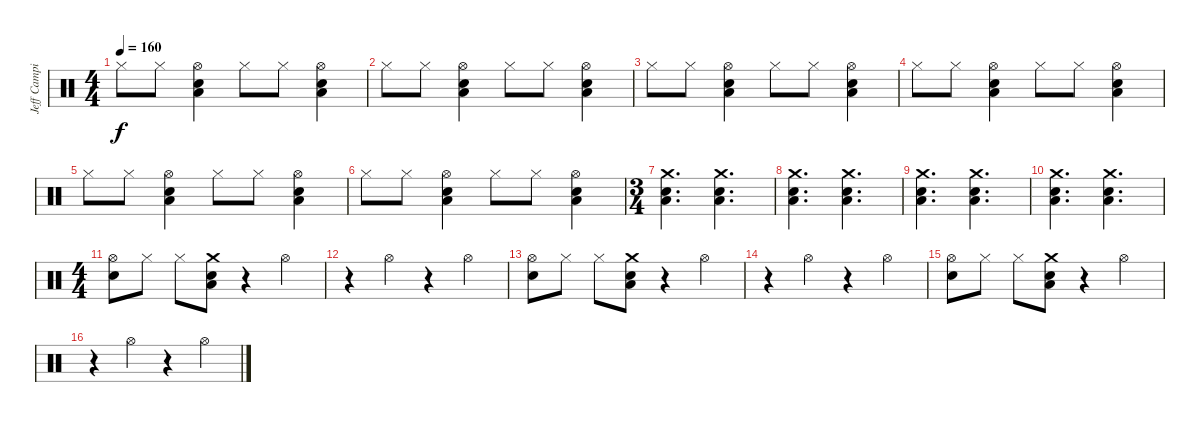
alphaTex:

\track ("Jeff Campitelli" "Jeff Campi") {instrument percussion}
\staff {score}
\articulation defaults
\ts (4 4)
\tempo 160
\clef neutral
\ks c "Hi-Hat (closed)".8{dy f} "Hi-Hat (closed)".8
("Low Floor Tom (hit)" "Snare (hit) 2" "Hi-Hat (open)").4 "Hi-Hat (closed)".8 "Hi-Hat (closed)".8 ("Low Floor Tom (hit)" "Snare (hit) 2" "Hi-Hat (open)").4 |
"Hi-Hat (closed)".8 "Hi-Hat (closed)".8 ("Low Floor Tom (hit)" "Snare (hit) 2" "Hi-Hat (open)").4 "Hi-Hat (closed)".8 "Hi-Hat (closed)".8 ("Low Floor Tom (hit)" "Snare (hit) 2" "Hi-Hat (open)").4 |
"Hi-Hat (closed)".8 "Hi-Hat (closed)".8 ("Low Floor Tom (hit)" "Snare (hit) 2" "Hi-Hat (open)").4 "Hi-Hat (closed)".8 "Hi-Hat (closed)".8 ("Low Floor Tom (hit)" "Snare (hit) 2" "Hi-Hat (open)").4 |
"Hi-Hat (closed)".8 "Hi-Hat (closed)".8 ("Low Floor Tom (hit)" "Snare (hit) 2" "Hi-Hat (open)").4 "Hi-Hat (closed)".8 "Hi-Hat (closed)".8 ("Low Floor Tom (hit)" "Snare (hit) 2" "Hi-Hat (open)").4 |
"Hi-Hat (closed)".8 "Hi-Hat (closed)".8 ("Low Floor Tom (hit)" "Snare (hit) 2" "Hi-Hat (open)").4 "Hi-Hat (closed)".8 "Hi-Hat (closed)".8 ("Low Floor Tom (hit)" "Snare (hit) 2" "Hi-Hat (open)").4 |
"Hi-Hat (closed)".8 "Hi-Hat (closed)".8 ("Low Floor Tom (hit)" "Snare (hit) 2" "Hi-Hat (open)").4 "Hi-Hat (closed)".8 "Hi-Hat (closed)".8 ("Low Floor Tom (hit)" "Snare (hit) 2" "Hi-Hat (open)").4 |
\ts (3 4)
("Crash medium (hit)" "Snare (hit) 2" "Low Floor Tom (hit)").4{d} ("Crash medium (hit)" "Snare (hit) 2" "Low Floor Tom (hit)").4{d} |
("Crash medium (hit)" "Snare (hit) 2" "Low Floor Tom (hit)").4{d} ("Crash medium (hit)" "Snare (hit) 2" "Low Floor Tom (hit)").4{d} |
("Crash medium (hit)" "Snare (hit) 2" "Low Floor Tom (hit)").4{d} ("Crash medium (hit)" "Snare (hit) 2" "Low Floor Tom (hit)").4{d} |
("Crash medium (hit)" "Snare (hit) 2" "Low Floor Tom (hit)").4{d} ("Crash medium (hit)" "Snare (hit) 2" "Low Floor Tom (hit)").4{d} |
\ts (4 4)
("Snare (hit) 2" "Hi-Hat (open)").8 "Hi-Hat (closed)".8 "Hi-Hat (closed)".8 ("Crash medium (hit)" "Snare (hit) 2" "Low Floor Tom (hit)").8 r.4 "Hi-Hat (open)".4 |
r.4 "Hi-Hat (open)".4 r.4 "Hi-Hat (open)".4 |
("Snare (hit) 2" "Hi-Hat (open)").8 "Hi-Hat (closed)".8 "Hi-Hat (closed)".8 ("Crash medium (hit)" "Snare (hit) 2" "Low Floor Tom (hit)").8 r.4 "Hi-Hat (open)".4 |
r.4 "Hi-Hat (open)".4 r.4 "Hi-Hat (open)".4 |
("Snare (hit) 2" "Hi-Hat (open)").8 "Hi-Hat (closed)".8 "Hi-Hat (closed)".8 ("Crash medium (hit)" "Snare (hit) 2" "Low Floor Tom (hit)").8 r.4 "Hi-Hat (open)".4 |
r.4 "Hi-Hat (open)".4 r.4 "Hi-Hat (open)".4
